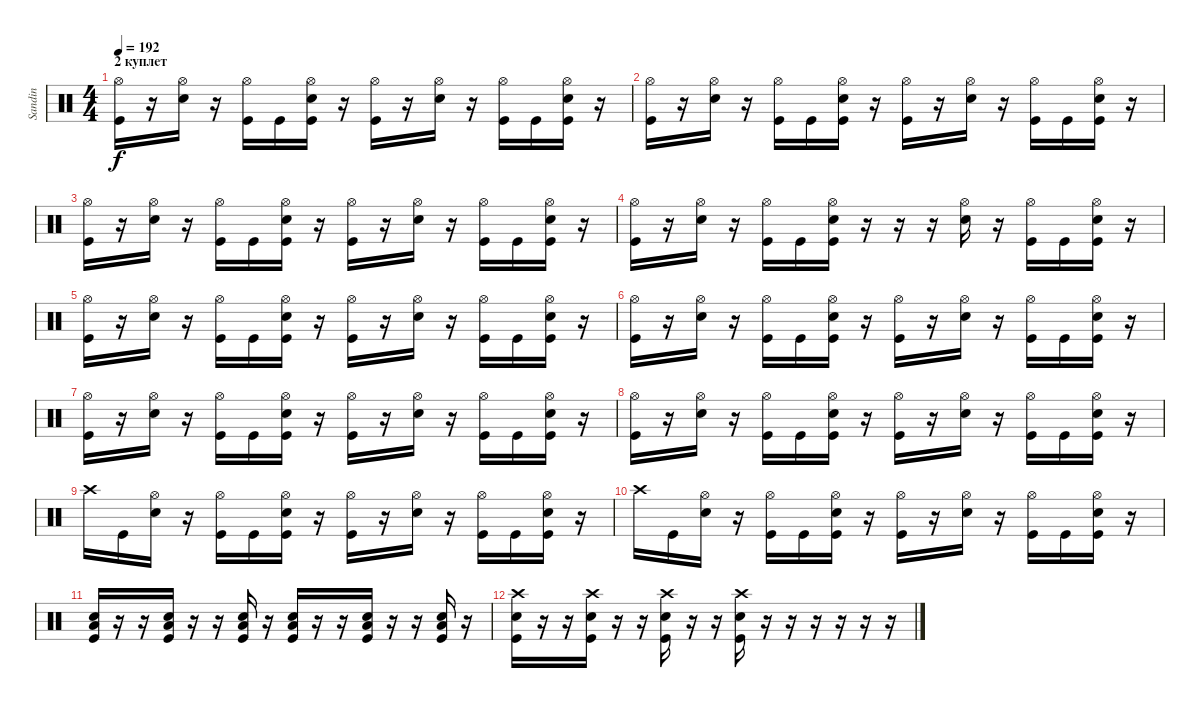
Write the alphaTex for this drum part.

\track ("Sandin" "Sandin") {instrument percussion}
\staff {score}
\articulation defaults
\ts (4 4)
\section ("" "2 куплет")
\tempo 192
\clef neutral
\ks c
("Hi-Hat (open)" "Kick (hit)").16{dy f} r.16 ("Hi-Hat (open)" "Electric Snare (hit)").16 r.16 ("Hi-Hat (open)" "Kick (hit)").16 "Kick (hit)".16 ("Hi-Hat (open)" "Electric Snare (hit)" "Kick (hit)").16 r.16 ("Hi-Hat (open)" "Kick (hit)").16 r.16 ("Hi-Hat (open)" "Electric Snare (hit)").16 r.16 ("Hi-Hat (open)" "Kick (hit)").16 "Kick (hit)".16 ("Hi-Hat (open)" "Electric Snare (hit)" "Kick (hit)").16 r.16 |
("Hi-Hat (open)" "Kick (hit)").16 r.16 ("Hi-Hat (open)" "Electric Snare (hit)").16 r.16 ("Hi-Hat (open)" "Kick (hit)").16 "Kick (hit)".16 ("Hi-Hat (open)" "Electric Snare (hit)" "Kick (hit)").16 r.16 ("Hi-Hat (open)" "Kick (hit)").16 r.16 ("Hi-Hat (open)" "Electric Snare (hit)").16 r.16 ("Hi-Hat (open)" "Kick (hit)").16 "Kick (hit)".16 ("Hi-Hat (open)" "Electric Snare (hit)" "Kick (hit)").16 r.16 |
("Hi-Hat (open)" "Kick (hit)").16 r.16 ("Hi-Hat (open)" "Electric Snare (hit)").16 r.16 ("Hi-Hat (open)" "Kick (hit)").16 "Kick (hit)".16 ("Hi-Hat (open)" "Electric Snare (hit)" "Kick (hit)").16 r.16 ("Hi-Hat (open)" "Kick (hit)").16 r.16 ("Hi-Hat (open)" "Electric Snare (hit)").16 r.16 ("Hi-Hat (open)" "Kick (hit)").16 "Kick (hit)".16 ("Hi-Hat (open)" "Electric Snare (hit)" "Kick (hit)").16 r.16 |
("Hi-Hat (open)" "Kick (hit)").16 r.16 ("Hi-Hat (open)" "Electric Snare (hit)").16 r.16 ("Hi-Hat (open)" "Kick (hit)").16 "Kick (hit)".16 ("Hi-Hat (open)" "Electric Snare (hit)" "Kick (hit)").16 r.16 r.16 r.16 ("Hi-Hat (open)" "Electric Snare (hit)").16 r.16 ("Hi-Hat (open)" "Kick (hit)").16 "Kick (hit)".16 ("Hi-Hat (open)" "Electric Snare (hit)" "Kick (hit)").16 r.16 |
("Hi-Hat (open)" "Kick (hit)").16 r.16 ("Hi-Hat (open)" "Electric Snare (hit)").16 r.16 ("Hi-Hat (open)" "Kick (hit)").16 "Kick (hit)".16 ("Hi-Hat (open)" "Electric Snare (hit)" "Kick (hit)").16 r.16 ("Hi-Hat (open)" "Kick (hit)").16 r.16 ("Hi-Hat (open)" "Electric Snare (hit)").16 r.16 ("Hi-Hat (open)" "Kick (hit)").16 "Kick (hit)".16 ("Hi-Hat (open)" "Electric Snare (hit)" "Kick (hit)").16 r.16 |
("Hi-Hat (open)" "Kick (hit)").16 r.16 ("Hi-Hat (open)" "Electric Snare (hit)").16 r.16 ("Hi-Hat (open)" "Kick (hit)").16 "Kick (hit)".16 ("Hi-Hat (open)" "Electric Snare (hit)" "Kick (hit)").16 r.16 ("Hi-Hat (open)" "Kick (hit)").16 r.16 ("Hi-Hat (open)" "Electric Snare (hit)").16 r.16 ("Hi-Hat (open)" "Kick (hit)").16 "Kick (hit)".16 ("Hi-Hat (open)" "Electric Snare (hit)" "Kick (hit)").16 r.16 |
("Hi-Hat (open)" "Kick (hit)").16 r.16 ("Hi-Hat (open)" "Electric Snare (hit)").16 r.16 ("Hi-Hat (open)" "Kick (hit)").16 "Kick (hit)".16 ("Hi-Hat (open)" "Electric Snare (hit)" "Kick (hit)").16 r.16 ("Hi-Hat (open)" "Kick (hit)").16 r.16 ("Hi-Hat (open)" "Electric Snare (hit)").16 r.16 ("Hi-Hat (open)" "Kick (hit)").16 "Kick (hit)".16 ("Hi-Hat (open)" "Electric Snare (hit)" "Kick (hit)").16 r.16 |
("Hi-Hat (open)" "Kick (hit)").16 r.16 ("Hi-Hat (open)" "Electric Snare (hit)").16 r.16 ("Hi-Hat (open)" "Kick (hit)").16 "Kick (hit)".16 ("Hi-Hat (open)" "Electric Snare (hit)" "Kick (hit)").16 r.16 ("Hi-Hat (open)" "Kick (hit)").16 r.16 ("Hi-Hat (open)" "Electric Snare (hit)").16 r.16 ("Hi-Hat (open)" "Kick (hit)").16 "Kick (hit)".16 ("Hi-Hat (open)" "Electric Snare (hit)" "Kick (hit)").16 r.16 |
"Crash high (hit)".16 "Kick (hit)".16 ("Hi-Hat (open)" "Electric Snare (hit)").16 r.16 ("Hi-Hat (open)" "Kick (hit)").16 "Kick (hit)".16 ("Hi-Hat (open)" "Electric Snare (hit)" "Kick (hit)").16 r.16 ("Hi-Hat (open)" "Kick (hit)").16 r.16 ("Hi-Hat (open)" "Electric Snare (hit)").16 r.16 ("Hi-Hat (open)" "Kick (hit)").16 "Kick (hit)".16 ("Hi-Hat (open)" "Electric Snare (hit)" "Kick (hit)").16 r.16 |
"Crash high (hit)".16 "Kick (hit)".16 ("Hi-Hat (open)" "Electric Snare (hit)").16 r.16 ("Hi-Hat (open)" "Kick (hit)").16 "Kick (hit)".16 ("Hi-Hat (open)" "Electric Snare (hit)" "Kick (hit)").16 r.16 ("Hi-Hat (open)" "Kick (hit)").16 r.16 ("Hi-Hat (open)" "Electric Snare (hit)").16 r.16 ("Hi-Hat (open)" "Kick (hit)").16 "Kick (hit)".16 ("Hi-Hat (open)" "Electric Snare (hit)" "Kick (hit)").16 r.16 |
("Electric Snare (hit)" "Low Tom (hit)" "Kick (hit)").16 r.16 r.16 ("Electric Snare (hit)" "Low Tom (hit)" "Kick (hit)").16 r.16 r.16 ("Electric Snare (hit)" "Low Tom (hit)" "Kick (hit)").16 r.16 ("Electric Snare (hit)" "Low Tom (hit)" "Kick (hit)").16 r.16 r.16 ("Electric Snare (hit)" "Low Tom (hit)" "Kick (hit)").16 r.16 r.16 ("Electric Snare (hit)" "Low Tom (hit)" "Kick (hit)").16 r.16 |
("Crash high (hit)" "Electric Snare (hit)" "Kick (hit)").16 r.16 r.16 ("Crash high (hit)" "Electric Snare (hit)" "Kick (hit)").16 r.16 r.16 ("Crash high (hit)" "Electric Snare (hit)" "Kick (hit)").16 r.16 r.16 ("Crash high (hit)" "Electric Snare (hit)" "Kick (hit)").16 r.16 r.16 r.16 r.16 r.16 r.16
